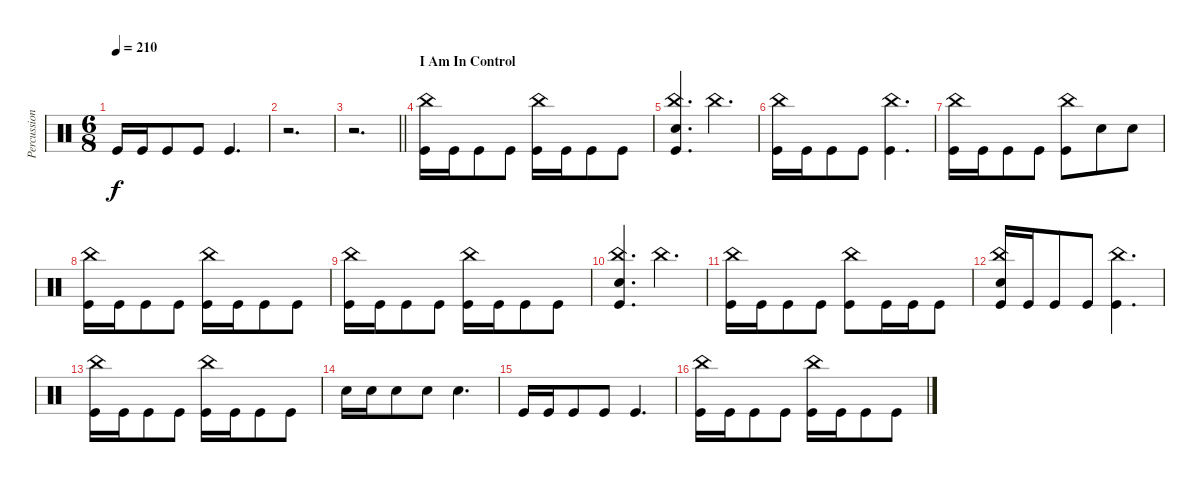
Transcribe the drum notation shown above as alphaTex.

\track ("Percussion" "Percussion") {instrument percussion}
\staff {score}
\articulation defaults
\ts (6 8)
\tempo 210
\clef neutral
\ks c "Kick (hit)".16{dy f} "Kick (hit)".16 "Kick (hit)".8 "Kick (hit)".8 "Kick (hit)".4{d}
|
r.2{d} |
\barLineRight lightlight
r.2{d} |
\section ("" "I Am In Control")
("China (hit)" "Kick (hit)").16 "Kick (hit)".16 "Kick (hit)".8 "Kick (hit)".8 ("China (hit)" "Kick (hit)").16 "Kick (hit)".16 "Kick (hit)".8 "Kick (hit)".8 |
("China (hit)" "Electric Snare (hit)" "Kick (hit)").4{d} "China (hit)".4{d} |
("China (hit)" "Kick (hit)").16 "Kick (hit)".16 "Kick (hit)".8 "Kick (hit)".8 ("China (hit)" "Kick (hit)").4{d} |
("China (hit)" "Kick (hit)").16 "Kick (hit)".16 "Kick (hit)".8 "Kick (hit)".8 ("China (hit)" "Kick (hit)").8 "Electric Snare (hit)".8 "Electric Snare (hit)".8 |
("China (hit)" "Kick (hit)").16 "Kick (hit)".16 "Kick (hit)".8 "Kick (hit)".8 ("China (hit)" "Kick (hit)").16 "Kick (hit)".16 "Kick (hit)".8 "Kick (hit)".8 |
("China (hit)" "Kick (hit)").16 "Kick (hit)".16 "Kick (hit)".8 "Kick (hit)".8 ("China (hit)" "Kick (hit)").16 "Kick (hit)".16 "Kick (hit)".8 "Kick (hit)".8 |
("China (hit)" "Electric Snare (hit)" "Kick (hit)").4{d} "China (hit)".4{d} |
("China (hit)" "Kick (hit)").16 "Kick (hit)".16 "Kick (hit)".8 "Kick (hit)".8 ("China (hit)" "Kick (hit)").8 "Kick (hit)".16 "Kick (hit)".16 "Kick (hit)".8 |
("China (hit)" "Electric Snare (hit)" "Kick (hit)").16 "Kick (hit)".16 "Kick (hit)".8 "Kick (hit)".8 ("China (hit)" "Kick (hit)").4{d} |
("China (hit)" "Kick (hit)").16 "Kick (hit)".16 "Kick (hit)".8 "Kick (hit)".8 ("China (hit)" "Kick (hit)").16 "Kick (hit)".16 "Kick (hit)".8 "Kick (hit)".8 |
"Electric Snare (hit)".16 "Electric Snare (hit)".16 "Electric Snare (hit)".8 "Electric Snare (hit)".8 "Electric Snare (hit)".4{d} |
"Kick (hit)".16 "Kick (hit)".16 "Kick (hit)".8 "Kick (hit)".8 "Kick (hit)".4{d} |
("China (hit)" "Kick (hit)").16 "Kick (hit)".16 "Kick (hit)".8 "Kick (hit)".8 ("China (hit)" "Kick (hit)").16 "Kick (hit)".16 "Kick (hit)".8 "Kick (hit)".8
